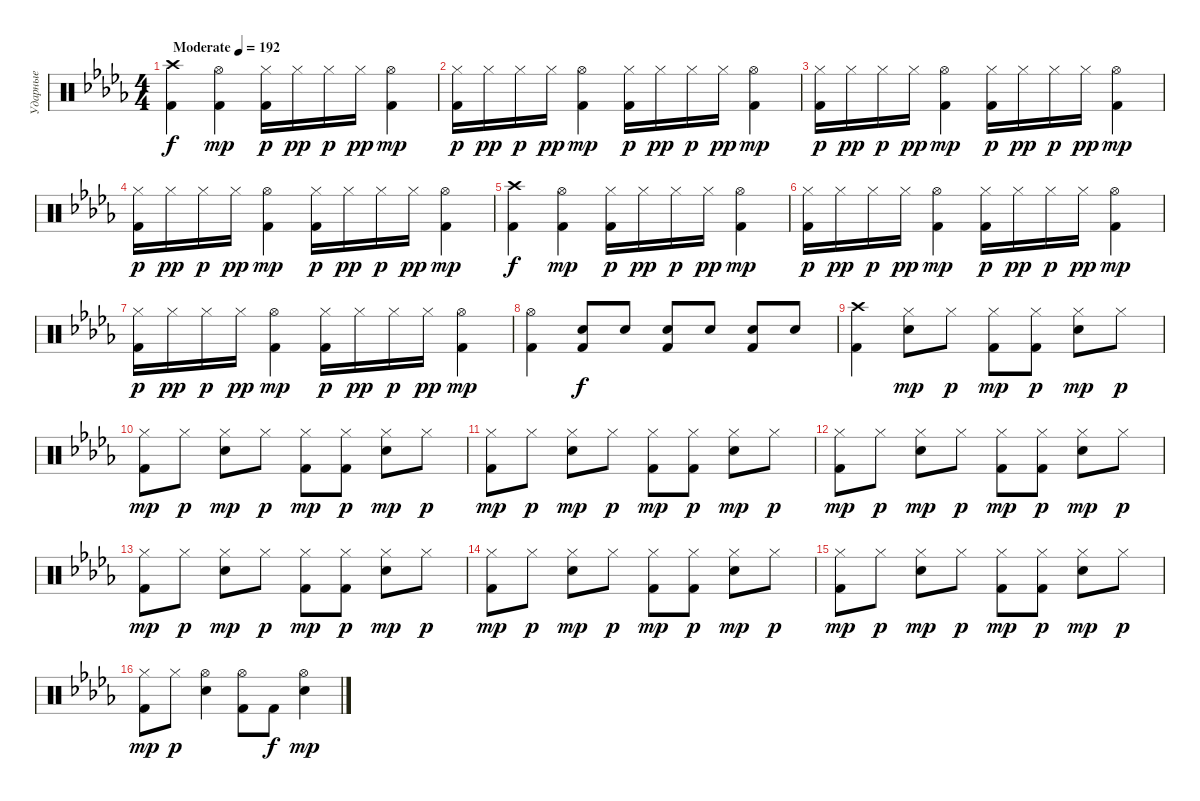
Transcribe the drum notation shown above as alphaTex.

\track ("Ударные" "Ударные") {instrument percussion}
\staff {score}
\articulation defaults
\ts (4 4)
\tempo (192 "Moderate")
\clef neutral
\ks bbminor
("Crash high (hit)" "Kick (hit) 2").4{dy f} ("Hi-Hat (open)" "Kick (hit) 2").4{dy mp} ("Hi-Hat (closed)" "Kick (hit) 2").16{dy p} "Hi-Hat (closed)".16{dy pp} "Hi-Hat (closed)".16{dy p} "Hi-Hat (closed)".16{dy pp} ("Hi-Hat (open)" "Kick (hit) 2").4{dy mp} |
("Hi-Hat (closed)" "Kick (hit) 2").16{dy p} "Hi-Hat (closed)".16{dy pp} "Hi-Hat (closed)".16{dy p} "Hi-Hat (closed)".16{dy pp} ("Hi-Hat (open)" "Kick (hit) 2").4{dy mp} ("Hi-Hat (closed)" "Kick (hit) 2").16{dy p} "Hi-Hat (closed)".16{dy pp} "Hi-Hat (closed)".16{dy p} "Hi-Hat (closed)".16{dy pp} ("Hi-Hat (open)" "Kick (hit) 2").4{dy mp} |
("Hi-Hat (closed)" "Kick (hit) 2").16{dy p} "Hi-Hat (closed)".16{dy pp} "Hi-Hat (closed)".16{dy p} "Hi-Hat (closed)".16{dy pp} ("Hi-Hat (open)" "Kick (hit) 2").4{dy mp} ("Hi-Hat (closed)" "Kick (hit) 2").16{dy p} "Hi-Hat (closed)".16{dy pp} "Hi-Hat (closed)".16{dy p} "Hi-Hat (closed)".16{dy pp} ("Hi-Hat (open)" "Kick (hit) 2").4{dy mp} |
("Hi-Hat (closed)" "Kick (hit) 2").16{dy p} "Hi-Hat (closed)".16{dy pp} "Hi-Hat (closed)".16{dy p} "Hi-Hat (closed)".16{dy pp} ("Hi-Hat (open)" "Kick (hit) 2").4{dy mp} ("Hi-Hat (closed)" "Kick (hit) 2").16{dy p} "Hi-Hat (closed)".16{dy pp} "Hi-Hat (closed)".16{dy p} "Hi-Hat (closed)".16{dy pp} ("Hi-Hat (open)" "Kick (hit) 2").4{dy mp} |
("Crash high (hit)" "Kick (hit) 2").4{dy f} ("Hi-Hat (open)" "Kick (hit) 2").4{dy mp} ("Hi-Hat (closed)" "Kick (hit) 2").16{dy p} "Hi-Hat (closed)".16{dy pp} "Hi-Hat (closed)".16{dy p} "Hi-Hat (closed)".16{dy pp} ("Hi-Hat (open)" "Kick (hit) 2").4{dy mp} |
("Hi-Hat (closed)" "Kick (hit) 2").16{dy p} "Hi-Hat (closed)".16{dy pp} "Hi-Hat (closed)".16{dy p} "Hi-Hat (closed)".16{dy pp} ("Hi-Hat (open)" "Kick (hit) 2").4{dy mp} ("Hi-Hat (closed)" "Kick (hit) 2").16{dy p} "Hi-Hat (closed)".16{dy pp} "Hi-Hat (closed)".16{dy p} "Hi-Hat (closed)".16{dy pp} ("Hi-Hat (open)" "Kick (hit) 2").4{dy mp} |
("Hi-Hat (closed)" "Kick (hit) 2").16{dy p} "Hi-Hat (closed)".16{dy pp} "Hi-Hat (closed)".16{dy p} "Hi-Hat (closed)".16{dy pp} ("Hi-Hat (open)" "Kick (hit) 2").4{dy mp} ("Hi-Hat (closed)" "Kick (hit) 2").16{dy p} "Hi-Hat (closed)".16{dy pp} "Hi-Hat (closed)".16{dy p} "Hi-Hat (closed)".16{dy pp} ("Hi-Hat (open)" "Kick (hit) 2").4{dy mp} |
("Hi-Hat (open)" "Kick (hit) 2").4 ("Electric Snare (hit)" "Kick (hit) 2").8{dy f} "Electric Snare (hit)".8 ("Electric Snare (hit)" "Kick (hit) 2").8 "Electric Snare (hit)".8 ("Electric Snare (hit)" "Kick (hit) 2").8 "Electric Snare (hit)".8 |
("Crash high (hit)" "Kick (hit) 2").4 ("Hi-Hat (closed)" "Electric Snare (hit)").8{dy mp} "Hi-Hat (closed)".8{dy p} ("Hi-Hat (closed)" "Kick (hit) 2").8{dy mp} ("Hi-Hat (closed)" "Kick (hit) 2").8{dy p} ("Hi-Hat (closed)" "Electric Snare (hit)").8{dy mp} "Hi-Hat (closed)".8{dy p} |
("Hi-Hat (closed)" "Kick (hit) 2").8{dy mp} "Hi-Hat (closed)".8{dy p} ("Hi-Hat (closed)" "Electric Snare (hit)").8{dy mp} "Hi-Hat (closed)".8{dy p} ("Hi-Hat (closed)" "Kick (hit) 2").8{dy mp} ("Hi-Hat (closed)" "Kick (hit) 2").8{dy p} ("Hi-Hat (closed)" "Electric Snare (hit)").8{dy mp} "Hi-Hat (closed)".8{dy p} |
("Hi-Hat (closed)" "Kick (hit) 2").8{dy mp} "Hi-Hat (closed)".8{dy p} ("Hi-Hat (closed)" "Electric Snare (hit)").8{dy mp} "Hi-Hat (closed)".8{dy p} ("Hi-Hat (closed)" "Kick (hit) 2").8{dy mp} ("Hi-Hat (closed)" "Kick (hit) 2").8{dy p} ("Hi-Hat (closed)" "Electric Snare (hit)").8{dy mp} "Hi-Hat (closed)".8{dy p} |
("Hi-Hat (closed)" "Kick (hit) 2").8{dy mp} "Hi-Hat (closed)".8{dy p} ("Hi-Hat (closed)" "Electric Snare (hit)").8{dy mp} "Hi-Hat (closed)".8{dy p} ("Hi-Hat (closed)" "Kick (hit) 2").8{dy mp} ("Hi-Hat (closed)" "Kick (hit) 2").8{dy p} ("Hi-Hat (closed)" "Electric Snare (hit)").8{dy mp} "Hi-Hat (closed)".8{dy p} |
("Hi-Hat (closed)" "Kick (hit) 2").8{dy mp} "Hi-Hat (closed)".8{dy p} ("Hi-Hat (closed)" "Electric Snare (hit)").8{dy mp} "Hi-Hat (closed)".8{dy p} ("Hi-Hat (closed)" "Kick (hit) 2").8{dy mp} ("Hi-Hat (closed)" "Kick (hit) 2").8{dy p} ("Hi-Hat (closed)" "Electric Snare (hit)").8{dy mp} "Hi-Hat (closed)".8{dy p} |
("Hi-Hat (closed)" "Kick (hit) 2").8{dy mp} "Hi-Hat (closed)".8{dy p} ("Hi-Hat (closed)" "Electric Snare (hit)").8{dy mp} "Hi-Hat (closed)".8{dy p} ("Hi-Hat (closed)" "Kick (hit) 2").8{dy mp} ("Hi-Hat (closed)" "Kick (hit) 2").8{dy p} ("Hi-Hat (closed)" "Electric Snare (hit)").8{dy mp} "Hi-Hat (closed)".8{dy p} |
("Hi-Hat (closed)" "Kick (hit) 2").8{dy mp} "Hi-Hat (closed)".8{dy p} ("Hi-Hat (closed)" "Electric Snare (hit)").8{dy mp} "Hi-Hat (closed)".8{dy p} ("Hi-Hat (closed)" "Kick (hit) 2").8{dy mp} ("Hi-Hat (closed)" "Kick (hit) 2").8{dy p} ("Hi-Hat (closed)" "Electric Snare (hit)").8{dy mp} "Hi-Hat (closed)".8{dy p} |
("Hi-Hat (closed)" "Kick (hit) 2").8{dy mp} "Hi-Hat (closed)".8{dy p} ("Hi-Hat (open)" "Electric Snare (hit)").4 ("Hi-Hat (open)" "Kick (hit) 2").8 "Kick (hit) 2".8{dy f} ("Hi-Hat (open)" "Electric Snare (hit)").4{dy mp}
